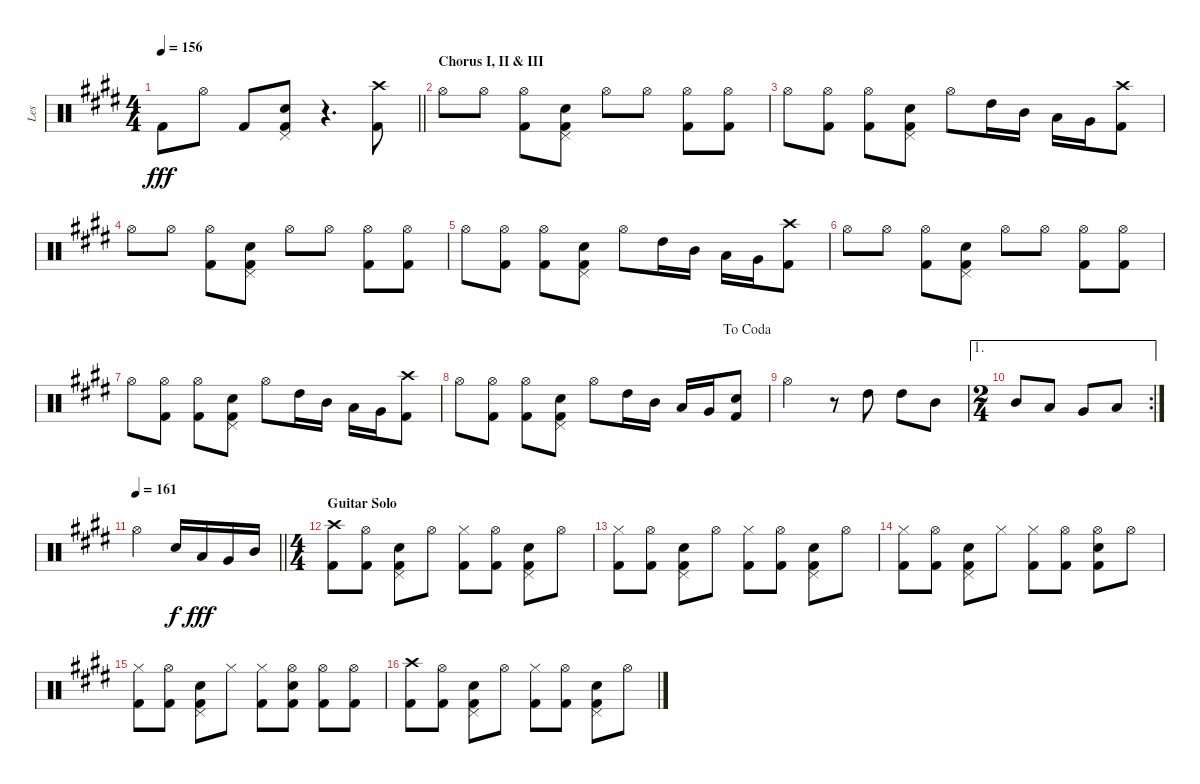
\track ("Les" "Les") {instrument percussion}
\staff {score}
\articulation defaults
\ts (4 4)
\tempo 156
\clef neutral
\barLineRight lightlight
\ks e "Kick (hit) 2".8{dy fff} "Hi-Hat (open)".8 "Kick (hit) 2".8
("Pedal Hi-Hat (hit)" "Snare (hit) 2" "Kick (hit) 2").8 r.4{d} ("Crash high (hit)" "Kick (hit) 2").8 |
\section ("" "Chorus I, II & III")
"Hi-Hat (open)".8 "Hi-Hat (open)".8 ("Hi-Hat (open)" "Kick (hit) 2").8 ("Pedal Hi-Hat (hit)" "Snare (hit) 2" "Kick (hit) 2").8 "Hi-Hat (open)".8 "Hi-Hat (open)".8 ("Hi-Hat (open)" "Kick (hit) 2").8 ("Hi-Hat (open)" "Kick (hit) 2").8 |
"Hi-Hat (open)".8 ("Hi-Hat (open)" "Kick (hit) 2").8 ("Hi-Hat (open)" "Kick (hit) 2").8 ("Pedal Hi-Hat (hit)" "Snare (hit) 2" "Kick (hit) 2").8 "Hi-Hat (open)".8 "High Tom (hit)".16 "Mid Tom (hit)".16 "Low Tom (hit)".16 "Very Low Tom (hit)".16 ("Crash high (hit)" "Kick (hit) 2").8 |
"Hi-Hat (open)".8 "Hi-Hat (open)".8 ("Hi-Hat (open)" "Kick (hit) 2").8 ("Pedal Hi-Hat (hit)" "Snare (hit) 2" "Kick (hit) 2").8 "Hi-Hat (open)".8 "Hi-Hat (open)".8 ("Hi-Hat (open)" "Kick (hit) 2").8 ("Hi-Hat (open)" "Kick (hit) 2").8 |
"Hi-Hat (open)".8 ("Hi-Hat (open)" "Kick (hit) 2").8 ("Hi-Hat (open)" "Kick (hit) 2").8 ("Pedal Hi-Hat (hit)" "Snare (hit) 2" "Kick (hit) 2").8 "Hi-Hat (open)".8 "High Tom (hit)".16 "Mid Tom (hit)".16 "Low Tom (hit)".16 "Very Low Tom (hit)".16 ("Crash high (hit)" "Kick (hit) 2").8 |
"Hi-Hat (open)".8 "Hi-Hat (open)".8 ("Hi-Hat (open)" "Kick (hit) 2").8 ("Pedal Hi-Hat (hit)" "Snare (hit) 2" "Kick (hit) 2").8 "Hi-Hat (open)".8 "Hi-Hat (open)".8 ("Hi-Hat (open)" "Kick (hit) 2").8 ("Hi-Hat (open)" "Kick (hit) 2").8 |
"Hi-Hat (open)".8 ("Hi-Hat (open)" "Kick (hit) 2").8 ("Hi-Hat (open)" "Kick (hit) 2").8 ("Pedal Hi-Hat (hit)" "Snare (hit) 2" "Kick (hit) 2").8 "Hi-Hat (open)".8 "High Tom (hit)".16 "Mid Tom (hit)".16 "Low Tom (hit)".16 "Very Low Tom (hit)".16 ("Crash high (hit)" "Kick (hit) 2").8 |
\jump dacoda "Hi-Hat (open)".8
("Hi-Hat (open)" "Kick (hit) 2").8 ("Hi-Hat (open)" "Kick (hit) 2").8 ("Pedal Hi-Hat (hit)" "Snare (hit) 2" "Kick (hit) 2").8 "Hi-Hat (open)".8 "High Tom (hit)".16 "Mid Tom (hit)".16 "Low Tom (hit)".16 "Very Low Tom (hit)".16 ("Snare (hit) 2" "Kick (hit) 2").8 |
"Hi-Hat (open)".2 r.8 "High Tom (hit)".8 "High Tom (hit)".8 "Mid Tom (hit)".8 |
\ae 1
\rc 2
\ts (2 4)
"Mid Tom (hit)".8 "Low Tom (hit)".8 "Very Low Tom (hit)".8 "Low Floor Tom (hit)".8 |
\tempo 161
\barLineRight lightlight "Hi-Hat (open)".4 "Snare (hit) 2".16{dy f} "Low Tom (hit)".16{dy fff} "Very Low Tom (hit)".16 "Mid Tom (hit)".16
|
\ts (4 4)
\section ("" "Guitar Solo")
("Crash high (hit)" "Kick (hit) 2").8 ("Hi-Hat (open)" "Kick (hit) 2").8 ("Pedal Hi-Hat (hit)" "Snare (hit) 2" "Kick (hit) 2").8 "Hi-Hat (open)".8 ("Hi-Hat (closed)" "Kick (hit) 2").8 ("Hi-Hat (open)" "Kick (hit) 2").8 ("Pedal Hi-Hat (hit)" "Snare (hit) 2" "Kick (hit) 2").8 "Hi-Hat (open)".8 |
("Hi-Hat (closed)" "Kick (hit) 2").8 ("Hi-Hat (open)" "Kick (hit) 2").8 ("Pedal Hi-Hat (hit)" "Snare (hit) 2" "Kick (hit) 2").8 "Hi-Hat (open)".8 ("Hi-Hat (closed)" "Kick (hit) 2").8 ("Hi-Hat (open)" "Kick (hit) 2").8 ("Pedal Hi-Hat (hit)" "Snare (hit) 2" "Kick (hit) 2").8 "Hi-Hat (open)".8 |
("Hi-Hat (closed)" "Kick (hit) 2").8 ("Hi-Hat (open)" "Kick (hit) 2").8 ("Pedal Hi-Hat (hit)" "Snare (hit) 2" "Kick (hit) 2").8 "Hi-Hat (closed)".8 ("Hi-Hat (closed)" "Kick (hit) 2").8 ("Hi-Hat (open)" "Kick (hit) 2").8 ("Hi-Hat (open)" "Snare (hit) 2" "Kick (hit) 2").8 "Hi-Hat (open)".8 |
("Hi-Hat (closed)" "Kick (hit) 2").8 ("Hi-Hat (open)" "Kick (hit) 2").8 ("Pedal Hi-Hat (hit)" "Snare (hit) 2" "Kick (hit) 2").8 "Hi-Hat (closed)".8 ("Hi-Hat (closed)" "Kick (hit) 2").8 ("Hi-Hat (open)" "Snare (hit) 2" "Kick (hit) 2").8 ("Hi-Hat (open)" "Kick (hit) 2").8 ("Hi-Hat (open)" "Kick (hit) 2").8 |
("Crash high (hit)" "Kick (hit) 2").8 ("Hi-Hat (open)" "Kick (hit) 2").8 ("Pedal Hi-Hat (hit)" "Snare (hit) 2" "Kick (hit) 2").8 "Hi-Hat (open)".8 ("Hi-Hat (closed)" "Kick (hit) 2").8 ("Hi-Hat (open)" "Kick (hit) 2").8 ("Pedal Hi-Hat (hit)" "Snare (hit) 2" "Kick (hit) 2").8 "Hi-Hat (open)".8
